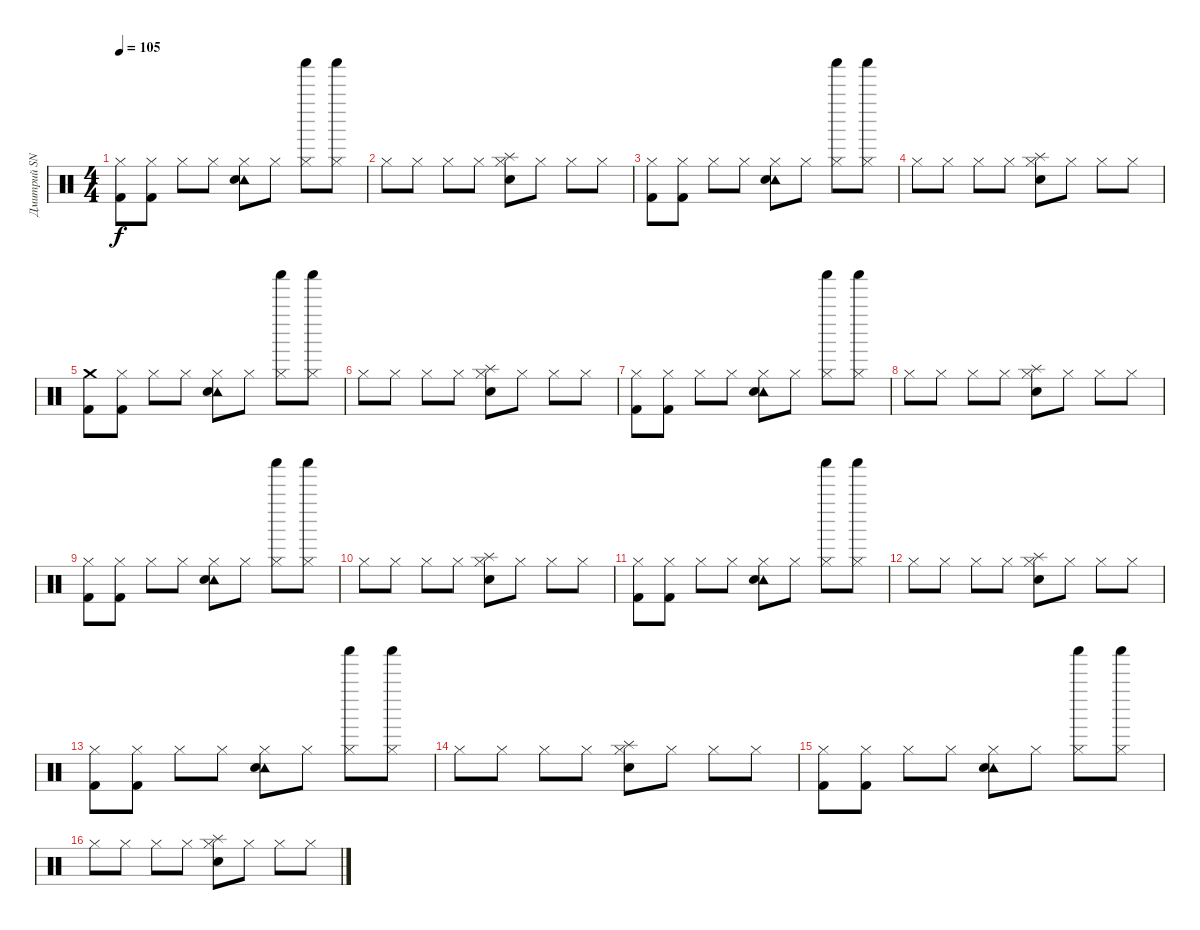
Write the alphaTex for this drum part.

\track ("Дмитрий SNAKE Хакимов" "Дмитрий SN") {instrument percussion}
\staff {score}
\articulation defaults
\ts (4 4)
\tempo 105
\clef neutral
\ks c
("Hi-Hat (closed)" "Kick (hit) 2").8{dy f} ("Hi-Hat (closed)" "Kick (hit) 2").8 "Hi-Hat (closed)".8 "Hi-Hat (closed)".8 ("Hi-Hat (closed)" "Tambourine (hit)" "Metronome (bell)").8 "Hi-Hat (closed)".8 ("Hi-Hat (closed)" "Shaker (hit)").8 ("Hi-Hat (closed)" "Shaker (hit)").8 |
"Hi-Hat (closed)".8 "Hi-Hat (closed)".8 "Hi-Hat (closed)".8 "Hi-Hat (closed)".8 ("Hi-Hat (closed)" "Splash (hit)" "Metronome (bell)").8 "Hi-Hat (closed)".8 "Hi-Hat (closed)".8 "Hi-Hat (closed)".8 |
("Hi-Hat (closed)" "Kick (hit) 2").8 ("Hi-Hat (closed)" "Kick (hit) 2").8 "Hi-Hat (closed)".8 "Hi-Hat (closed)".8 ("Hi-Hat (closed)" "Tambourine (hit)" "Metronome (bell)").8 "Hi-Hat (closed)".8 ("Hi-Hat (closed)" "Shaker (hit)").8 ("Hi-Hat (closed)" "Shaker (hit)").8 |
"Hi-Hat (closed)".8 "Hi-Hat (closed)".8 "Hi-Hat (closed)".8 "Hi-Hat (closed)".8 ("Hi-Hat (closed)" "Splash (hit)" "Metronome (bell)").8 "Hi-Hat (closed)".8 "Hi-Hat (closed)".8 "Hi-Hat (closed)".8 |
("Crash medium (hit)" "Kick (hit) 2").8 ("Hi-Hat (closed)" "Kick (hit) 2").8 "Hi-Hat (closed)".8 "Hi-Hat (closed)".8 ("Hi-Hat (closed)" "Tambourine (hit)" "Metronome (bell)").8 "Hi-Hat (closed)".8 ("Hi-Hat (closed)" "Shaker (hit)").8 ("Hi-Hat (closed)" "Shaker (hit)").8 |
"Hi-Hat (closed)".8 "Hi-Hat (closed)".8 "Hi-Hat (closed)".8 "Hi-Hat (closed)".8 ("Hi-Hat (closed)" "Splash (hit)" "Metronome (bell)").8 "Hi-Hat (closed)".8 "Hi-Hat (closed)".8 "Hi-Hat (closed)".8 |
("Hi-Hat (closed)" "Kick (hit) 2").8 ("Hi-Hat (closed)" "Kick (hit) 2").8 "Hi-Hat (closed)".8 "Hi-Hat (closed)".8 ("Hi-Hat (closed)" "Tambourine (hit)" "Metronome (bell)").8 "Hi-Hat (closed)".8 ("Hi-Hat (closed)" "Shaker (hit)").8 ("Hi-Hat (closed)" "Shaker (hit)").8 |
"Hi-Hat (closed)".8 "Hi-Hat (closed)".8 "Hi-Hat (closed)".8 "Hi-Hat (closed)".8 ("Hi-Hat (closed)" "Splash (hit)" "Metronome (bell)").8 "Hi-Hat (closed)".8 "Hi-Hat (closed)".8 "Hi-Hat (closed)".8 |
("Hi-Hat (closed)" "Kick (hit) 2").8 ("Hi-Hat (closed)" "Kick (hit) 2").8 "Hi-Hat (closed)".8 "Hi-Hat (closed)".8 ("Hi-Hat (closed)" "Tambourine (hit)" "Metronome (bell)").8 "Hi-Hat (closed)".8 ("Hi-Hat (closed)" "Shaker (hit)").8 ("Hi-Hat (closed)" "Shaker (hit)").8 |
"Hi-Hat (closed)".8 "Hi-Hat (closed)".8 "Hi-Hat (closed)".8 "Hi-Hat (closed)".8 ("Hi-Hat (closed)" "Splash (hit)" "Metronome (bell)").8 "Hi-Hat (closed)".8 "Hi-Hat (closed)".8 "Hi-Hat (closed)".8 |
("Hi-Hat (closed)" "Kick (hit) 2").8 ("Hi-Hat (closed)" "Kick (hit) 2").8 "Hi-Hat (closed)".8 "Hi-Hat (closed)".8 ("Hi-Hat (closed)" "Tambourine (hit)" "Metronome (bell)").8 "Hi-Hat (closed)".8 ("Hi-Hat (closed)" "Shaker (hit)").8 ("Hi-Hat (closed)" "Shaker (hit)").8 |
"Hi-Hat (closed)".8 "Hi-Hat (closed)".8 "Hi-Hat (closed)".8 "Hi-Hat (closed)".8 ("Hi-Hat (closed)" "Splash (hit)" "Metronome (bell)").8 "Hi-Hat (closed)".8 "Hi-Hat (closed)".8 "Hi-Hat (closed)".8 |
("Hi-Hat (closed)" "Kick (hit) 2").8 ("Hi-Hat (closed)" "Kick (hit) 2").8 "Hi-Hat (closed)".8 "Hi-Hat (closed)".8 ("Hi-Hat (closed)" "Tambourine (hit)" "Metronome (bell)").8 "Hi-Hat (closed)".8 ("Hi-Hat (closed)" "Shaker (hit)").8 ("Hi-Hat (closed)" "Shaker (hit)").8 |
"Hi-Hat (closed)".8 "Hi-Hat (closed)".8 "Hi-Hat (closed)".8 "Hi-Hat (closed)".8 ("Hi-Hat (closed)" "Splash (hit)" "Metronome (bell)").8 "Hi-Hat (closed)".8 "Hi-Hat (closed)".8 "Hi-Hat (closed)".8 |
("Hi-Hat (closed)" "Kick (hit) 2").8 ("Hi-Hat (closed)" "Kick (hit) 2").8 "Hi-Hat (closed)".8 "Hi-Hat (closed)".8 ("Hi-Hat (closed)" "Tambourine (hit)" "Metronome (bell)").8 "Hi-Hat (closed)".8 ("Hi-Hat (closed)" "Shaker (hit)").8 ("Hi-Hat (closed)" "Shaker (hit)").8 |
"Hi-Hat (closed)".8 "Hi-Hat (closed)".8 "Hi-Hat (closed)".8 "Hi-Hat (closed)".8 ("Hi-Hat (closed)" "Splash (hit)" "Metronome (bell)").8 "Hi-Hat (closed)".8 "Hi-Hat (closed)".8 "Hi-Hat (closed)".8
